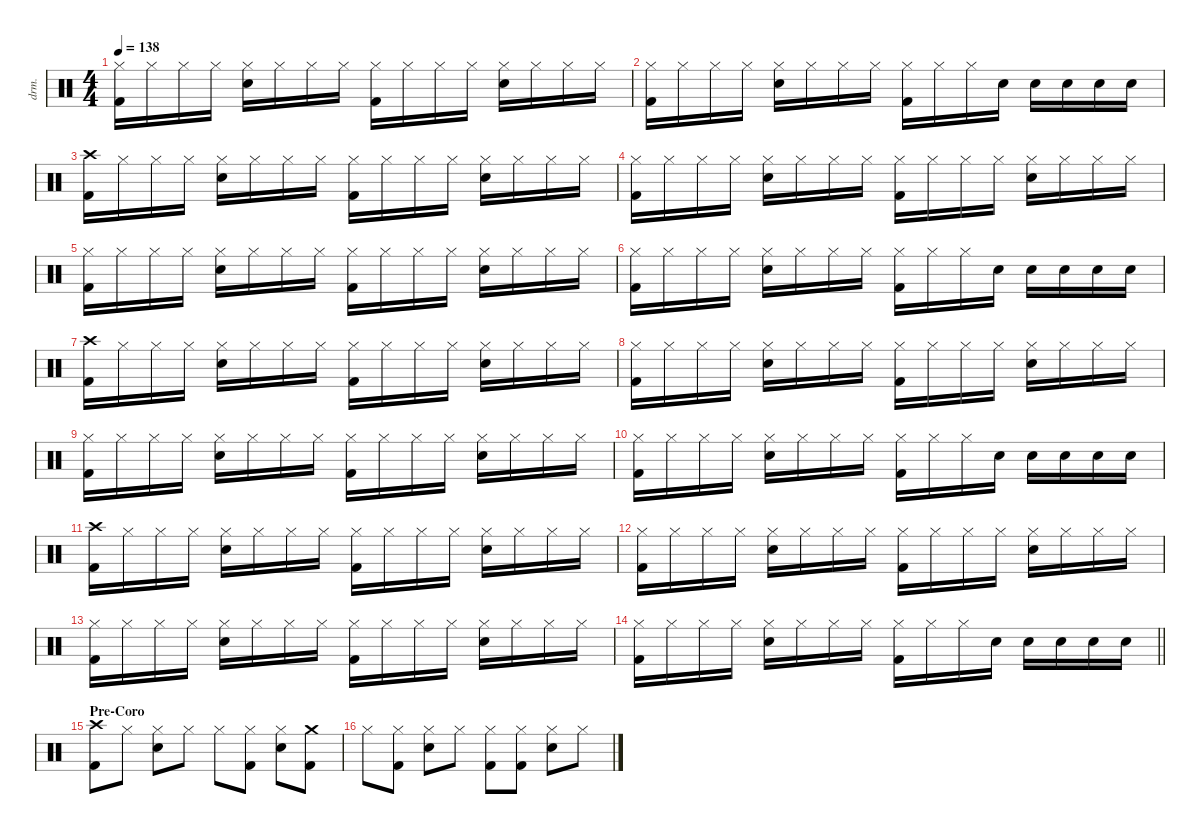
\defaultSystemsLayout 4
\hideDynamics
\bracketExtendMode nobrackets
\otherSystemsTrackNameOrientation horizontal
\track ("Lee Kerslake" "drm.") {instrument percussion}
\staff {score}
\articulation defaults
\ts (4 4)
\tempo 138
\clef neutral
\ks c
("Hi-Hat (closed)" "Kick (hit) 2").16{dy f beam Down} "Hi-Hat (closed)".16{beam Down} "Hi-Hat (closed)".16{beam Down} "Hi-Hat (closed)".16{beam Down} ("Hi-Hat (closed)" "Snare (hit) 2").16{beam Down} "Hi-Hat (closed)".16{beam Down} "Hi-Hat (closed)".16{beam Down} "Hi-Hat (closed)".16{beam Down} ("Hi-Hat (closed)" "Kick (hit) 2").16{beam Down} "Hi-Hat (closed)".16{beam Down} "Hi-Hat (closed)".16{beam Down} "Hi-Hat (closed)".16{beam Down} ("Hi-Hat (closed)" "Snare (hit) 2").16{beam Down} "Hi-Hat (closed)".16{beam Down} "Hi-Hat (closed)".16{beam Down} "Hi-Hat (closed)".16{beam Down} |
("Hi-Hat (closed)" "Kick (hit) 2").16{beam Down} "Hi-Hat (closed)".16{beam Down} "Hi-Hat (closed)".16{beam Down} "Hi-Hat (closed)".16{beam Down} ("Hi-Hat (closed)" "Snare (hit) 2").16{beam Down} "Hi-Hat (closed)".16{beam Down} "Hi-Hat (closed)".16{beam Down} "Hi-Hat (closed)".16{beam Down} ("Hi-Hat (closed)" "Kick (hit) 2").16{beam Down} "Hi-Hat (closed)".16{beam Down} "Hi-Hat (closed)".16{beam Down} "Snare (hit) 2".16{beam Down} "Snare (hit) 2".16{beam Down} "Snare (hit) 2".16{beam Down} "Snare (hit) 2".16{beam Down} "Snare (hit) 2".16{beam Down} |
("Crash high (hit)" "Kick (hit) 2").16{beam Down} "Hi-Hat (closed)".16{beam Down} "Hi-Hat (closed)".16{beam Down} "Hi-Hat (closed)".16{beam Down} ("Hi-Hat (closed)" "Snare (hit) 2").16{beam Down} "Hi-Hat (closed)".16{beam Down} "Hi-Hat (closed)".16{beam Down} "Hi-Hat (closed)".16{beam Down} ("Hi-Hat (closed)" "Kick (hit) 2").16{beam Down} "Hi-Hat (closed)".16{beam Down} "Hi-Hat (closed)".16{beam Down} "Hi-Hat (closed)".16{beam Down} ("Hi-Hat (closed)" "Snare (hit) 2").16{beam Down} "Hi-Hat (closed)".16{beam Down} "Hi-Hat (closed)".16{beam Down} "Hi-Hat (closed)".16{beam Down} |
("Hi-Hat (closed)" "Kick (hit) 2").16{beam Down} "Hi-Hat (closed)".16{beam Down} "Hi-Hat (closed)".16{beam Down} "Hi-Hat (closed)".16{beam Down} ("Hi-Hat (closed)" "Snare (hit) 2").16{beam Down} "Hi-Hat (closed)".16{beam Down} "Hi-Hat (closed)".16{beam Down} "Hi-Hat (closed)".16{beam Down} ("Hi-Hat (closed)" "Kick (hit) 2").16{beam Down} "Hi-Hat (closed)".16{beam Down} "Hi-Hat (closed)".16{beam Down} "Hi-Hat (closed)".16{beam Down} ("Hi-Hat (closed)" "Snare (hit) 2").16{beam Down} "Hi-Hat (closed)".16{beam Down} "Hi-Hat (closed)".16{beam Down} "Hi-Hat (closed)".16{beam Down} |
("Hi-Hat (closed)" "Kick (hit) 2").16{beam Down} "Hi-Hat (closed)".16{beam Down} "Hi-Hat (closed)".16{beam Down} "Hi-Hat (closed)".16{beam Down} ("Hi-Hat (closed)" "Snare (hit) 2").16{beam Down} "Hi-Hat (closed)".16{beam Down} "Hi-Hat (closed)".16{beam Down} "Hi-Hat (closed)".16{beam Down} ("Hi-Hat (closed)" "Kick (hit) 2").16{beam Down} "Hi-Hat (closed)".16{beam Down} "Hi-Hat (closed)".16{beam Down} "Hi-Hat (closed)".16{beam Down} ("Hi-Hat (closed)" "Snare (hit) 2").16{beam Down} "Hi-Hat (closed)".16{beam Down} "Hi-Hat (closed)".16{beam Down} "Hi-Hat (closed)".16{beam Down} |
("Hi-Hat (closed)" "Kick (hit) 2").16{beam Down} "Hi-Hat (closed)".16{beam Down} "Hi-Hat (closed)".16{beam Down} "Hi-Hat (closed)".16{beam Down} ("Hi-Hat (closed)" "Snare (hit) 2").16{beam Down} "Hi-Hat (closed)".16{beam Down} "Hi-Hat (closed)".16{beam Down} "Hi-Hat (closed)".16{beam Down} ("Hi-Hat (closed)" "Kick (hit) 2").16{beam Down} "Hi-Hat (closed)".16{beam Down} "Hi-Hat (closed)".16{beam Down} "Snare (hit) 2".16{beam Down} "Snare (hit) 2".16{beam Down} "Snare (hit) 2".16{beam Down} "Snare (hit) 2".16{beam Down} "Snare (hit) 2".16{beam Down} |
("Crash high (hit)" "Kick (hit) 2").16{beam Down} "Hi-Hat (closed)".16{beam Down} "Hi-Hat (closed)".16{beam Down} "Hi-Hat (closed)".16{beam Down} ("Hi-Hat (closed)" "Snare (hit) 2").16{beam Down} "Hi-Hat (closed)".16{beam Down} "Hi-Hat (closed)".16{beam Down} "Hi-Hat (closed)".16{beam Down} ("Hi-Hat (closed)" "Kick (hit) 2").16{beam Down} "Hi-Hat (closed)".16{beam Down} "Hi-Hat (closed)".16{beam Down} "Hi-Hat (closed)".16{beam Down} ("Hi-Hat (closed)" "Snare (hit) 2").16{beam Down} "Hi-Hat (closed)".16{beam Down} "Hi-Hat (closed)".16{beam Down} "Hi-Hat (closed)".16{beam Down} |
("Hi-Hat (closed)" "Kick (hit) 2").16{beam Down} "Hi-Hat (closed)".16{beam Down} "Hi-Hat (closed)".16{beam Down} "Hi-Hat (closed)".16{beam Down} ("Hi-Hat (closed)" "Snare (hit) 2").16{beam Down} "Hi-Hat (closed)".16{beam Down} "Hi-Hat (closed)".16{beam Down} "Hi-Hat (closed)".16{beam Down} ("Hi-Hat (closed)" "Kick (hit) 2").16{beam Down} "Hi-Hat (closed)".16{beam Down} "Hi-Hat (closed)".16{beam Down} "Hi-Hat (closed)".16{beam Down} ("Hi-Hat (closed)" "Snare (hit) 2").16{beam Down} "Hi-Hat (closed)".16{beam Down} "Hi-Hat (closed)".16{beam Down} "Hi-Hat (closed)".16{beam Down} |
("Hi-Hat (closed)" "Kick (hit) 2").16{beam Down} "Hi-Hat (closed)".16{beam Down} "Hi-Hat (closed)".16{beam Down} "Hi-Hat (closed)".16{beam Down} ("Hi-Hat (closed)" "Snare (hit) 2").16{beam Down} "Hi-Hat (closed)".16{beam Down} "Hi-Hat (closed)".16{beam Down} "Hi-Hat (closed)".16{beam Down} ("Hi-Hat (closed)" "Kick (hit) 2").16{beam Down} "Hi-Hat (closed)".16{beam Down} "Hi-Hat (closed)".16{beam Down} "Hi-Hat (closed)".16{beam Down} ("Hi-Hat (closed)" "Snare (hit) 2").16{beam Down} "Hi-Hat (closed)".16{beam Down} "Hi-Hat (closed)".16{beam Down} "Hi-Hat (closed)".16{beam Down} |
("Hi-Hat (closed)" "Kick (hit) 2").16{beam Down} "Hi-Hat (closed)".16{beam Down} "Hi-Hat (closed)".16{beam Down} "Hi-Hat (closed)".16{beam Down} ("Hi-Hat (closed)" "Snare (hit) 2").16{beam Down} "Hi-Hat (closed)".16{beam Down} "Hi-Hat (closed)".16{beam Down} "Hi-Hat (closed)".16{beam Down} ("Hi-Hat (closed)" "Kick (hit) 2").16{beam Down} "Hi-Hat (closed)".16{beam Down} "Hi-Hat (closed)".16{beam Down} "Snare (hit) 2".16{beam Down} "Snare (hit) 2".16{beam Down} "Snare (hit) 2".16{beam Down} "Snare (hit) 2".16{beam Down} "Snare (hit) 2".16{beam Down} |
("Crash high (hit)" "Kick (hit) 2").16{beam Down} "Hi-Hat (closed)".16{beam Down} "Hi-Hat (closed)".16{beam Down} "Hi-Hat (closed)".16{beam Down} ("Hi-Hat (closed)" "Snare (hit) 2").16{beam Down} "Hi-Hat (closed)".16{beam Down} "Hi-Hat (closed)".16{beam Down} "Hi-Hat (closed)".16{beam Down} ("Hi-Hat (closed)" "Kick (hit) 2").16{beam Down} "Hi-Hat (closed)".16{beam Down} "Hi-Hat (closed)".16{beam Down} "Hi-Hat (closed)".16{beam Down} ("Hi-Hat (closed)" "Snare (hit) 2").16{beam Down} "Hi-Hat (closed)".16{beam Down} "Hi-Hat (closed)".16{beam Down} "Hi-Hat (closed)".16{beam Down} |
("Hi-Hat (closed)" "Kick (hit) 2").16{beam Down} "Hi-Hat (closed)".16{beam Down} "Hi-Hat (closed)".16{beam Down} "Hi-Hat (closed)".16{beam Down} ("Hi-Hat (closed)" "Snare (hit) 2").16{beam Down} "Hi-Hat (closed)".16{beam Down} "Hi-Hat (closed)".16{beam Down} "Hi-Hat (closed)".16{beam Down} ("Hi-Hat (closed)" "Kick (hit) 2").16{beam Down} "Hi-Hat (closed)".16{beam Down} "Hi-Hat (closed)".16{beam Down} "Hi-Hat (closed)".16{beam Down} ("Hi-Hat (closed)" "Snare (hit) 2").16{beam Down} "Hi-Hat (closed)".16{beam Down} "Hi-Hat (closed)".16{beam Down} "Hi-Hat (closed)".16{beam Down} |
("Hi-Hat (closed)" "Kick (hit) 2").16{beam Down} "Hi-Hat (closed)".16{beam Down} "Hi-Hat (closed)".16{beam Down} "Hi-Hat (closed)".16{beam Down} ("Hi-Hat (closed)" "Snare (hit) 2").16{beam Down} "Hi-Hat (closed)".16{beam Down} "Hi-Hat (closed)".16{beam Down} "Hi-Hat (closed)".16{beam Down} ("Hi-Hat (closed)" "Kick (hit) 2").16{beam Down} "Hi-Hat (closed)".16{beam Down} "Hi-Hat (closed)".16{beam Down} "Hi-Hat (closed)".16{beam Down} ("Hi-Hat (closed)" "Snare (hit) 2").16{beam Down} "Hi-Hat (closed)".16{beam Down} "Hi-Hat (closed)".16{beam Down} "Hi-Hat (closed)".16{beam Down} |
\barLineRight lightlight
("Hi-Hat (closed)" "Kick (hit) 2").16{beam Down} "Hi-Hat (closed)".16{beam Down} "Hi-Hat (closed)".16{beam Down} "Hi-Hat (closed)".16{beam Down} ("Hi-Hat (closed)" "Snare (hit) 2").16{beam Down} "Hi-Hat (closed)".16{beam Down} "Hi-Hat (closed)".16{beam Down} "Hi-Hat (closed)".16{beam Down} ("Hi-Hat (closed)" "Kick (hit) 2").16{beam Down} "Hi-Hat (closed)".16{beam Down} "Hi-Hat (closed)".16{beam Down} "Snare (hit) 2".16{beam Down} "Snare (hit) 2".16{beam Down} "Snare (hit) 2".16{beam Down} "Snare (hit) 2".16{beam Down} "Snare (hit) 2".16{beam Down} |
\section ("" "Pre-Coro")
("Crash high (hit)" "Kick (hit) 2").8{beam Down} "Hi-Hat (closed)".8{beam Down} ("Hi-Hat (closed)" "Snare (hit) 2").8{beam Down} "Hi-Hat (closed)".8{beam Down} "Hi-Hat (closed)".8{beam Down} ("Hi-Hat (closed)" "Kick (hit) 2").8{beam Down} ("Hi-Hat (closed)" "Snare (hit) 2").8{beam Down} ("Crash medium (hit)" "Kick (hit) 2").8{beam Down} |
"Hi-Hat (closed)".8{beam Down} ("Hi-Hat (closed)" "Kick (hit) 2").8{beam Down} ("Hi-Hat (closed)" "Snare (hit) 2").8{beam Down} "Hi-Hat (closed)".8{beam Down} ("Hi-Hat (closed)" "Kick (hit) 2").8{beam Down} ("Hi-Hat (closed)" "Kick (hit) 2").8{beam Down} ("Hi-Hat (closed)" "Snare (hit) 2").8{beam Down} "Hi-Hat (closed)".8{beam Down}
